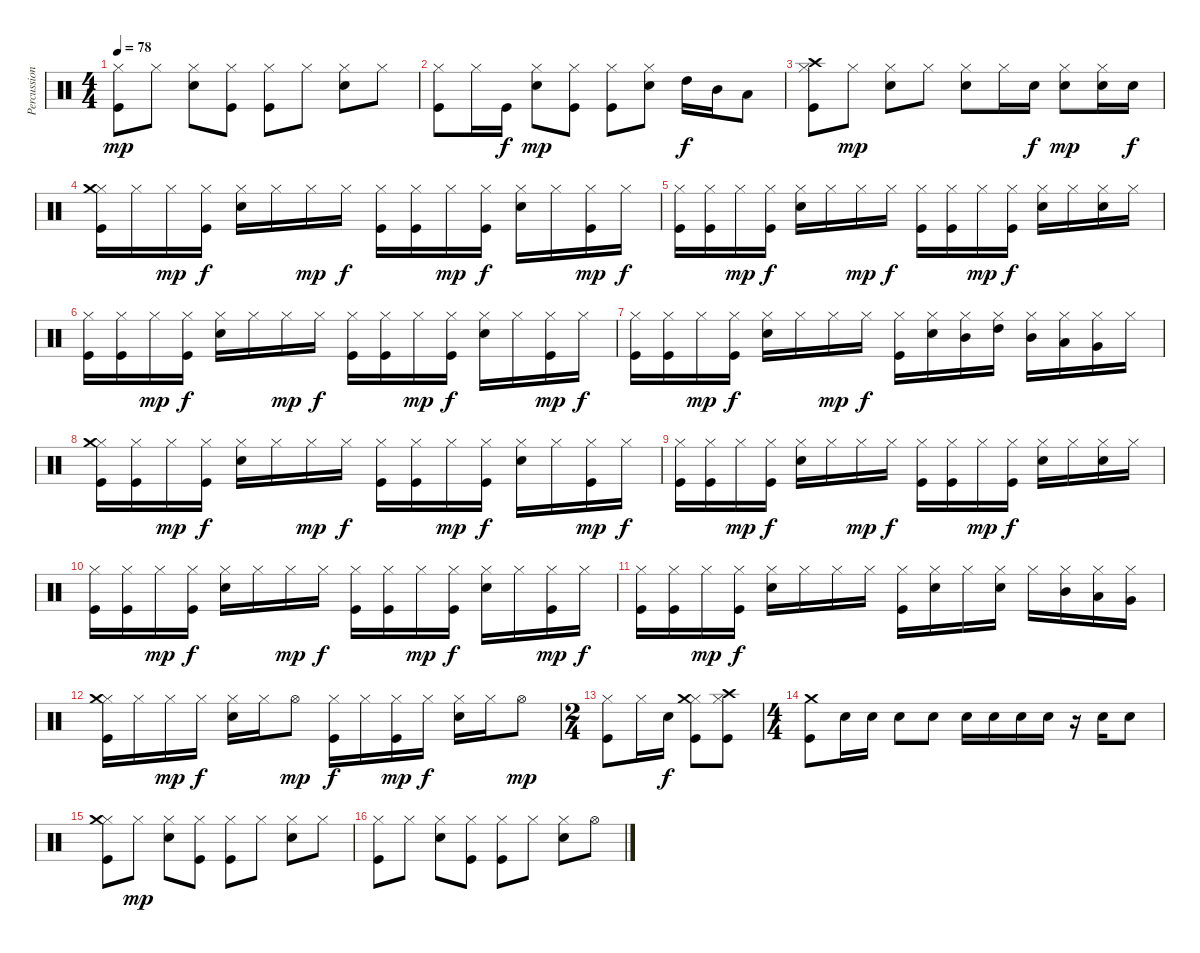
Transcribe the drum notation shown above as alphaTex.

\track ("Percussion" "Percussion") {instrument percussion}
\staff {score}
\articulation defaults
\ts (4 4)
\tempo 78
\clef neutral
\ks c
("Kick (hit)" "Hi-Hat (closed)").8{dy mp} "Hi-Hat (closed)".8 ("Electric Snare (hit)" "Hi-Hat (closed)").8 ("Kick (hit)" "Hi-Hat (closed)").8 ("Kick (hit)" "Hi-Hat (closed)").8 "Hi-Hat (closed)".8 ("Electric Snare (hit)" "Hi-Hat (closed)").8 "Hi-Hat (closed)".8 |
("Kick (hit)" "Hi-Hat (closed)").8 "Hi-Hat (closed)".16 "Kick (hit)".16{dy f} ("Electric Snare (hit)" "Hi-Hat (closed)").8{dy mp} ("Kick (hit)" "Hi-Hat (closed)").8 ("Kick (hit)" "Hi-Hat (closed)").8 ("Electric Snare (hit)" "Hi-Hat (closed)").8 "High Tom (hit)".16{dy f} "Mid Tom (hit)".16 "Low Tom (hit)".8 |
("Kick (hit)" "Hi-Hat (closed)" "Crash high (hit)").8 "Hi-Hat (closed)".8{dy mp} ("Electric Snare (hit)" "Hi-Hat (closed)").8 "Hi-Hat (closed)".8 ("Electric Snare (hit)" "Hi-Hat (closed)").8 "Hi-Hat (closed)".16 "Electric Snare (hit)".16{dy f} ("Electric Snare (hit)" "Hi-Hat (closed)").8{dy mp} ("Electric Snare (hit)" "Hi-Hat (closed)").16 "Electric Snare (hit)".16{dy f} |
("Kick (hit)" "Hi-Hat (closed)" "Crash medium (hit)").16 "Hi-Hat (closed)".16 "Hi-Hat (closed)".16{dy mp} ("Kick (hit)" "Hi-Hat (closed)").16{dy f} ("Electric Snare (hit)" "Hi-Hat (closed)").16 "Hi-Hat (closed)".16 "Hi-Hat (closed)".16{dy mp} "Hi-Hat (closed)".16{dy f} ("Kick (hit)" "Hi-Hat (closed)").16 ("Kick (hit)" "Hi-Hat (closed)").16 "Hi-Hat (closed)".16{dy mp} ("Kick (hit)" "Hi-Hat (closed)").16{dy f} ("Electric Snare (hit)" "Hi-Hat (closed)").16 "Hi-Hat (closed)".16 ("Kick (hit)" "Hi-Hat (closed)").16{dy mp} "Hi-Hat (closed)".16{dy f} |
("Kick (hit)" "Hi-Hat (closed)").16 ("Kick (hit)" "Hi-Hat (closed)").16 "Hi-Hat (closed)".16{dy mp} ("Kick (hit)" "Hi-Hat (closed)").16{dy f} ("Electric Snare (hit)" "Hi-Hat (closed)").16 "Hi-Hat (closed)".16 "Hi-Hat (closed)".16{dy mp} "Hi-Hat (closed)".16{dy f} ("Kick (hit)" "Hi-Hat (closed)").16 ("Kick (hit)" "Hi-Hat (closed)").16 "Hi-Hat (closed)".16{dy mp} ("Kick (hit)" "Hi-Hat (closed)").16{dy f} ("Electric Snare (hit)" "Hi-Hat (closed)").16 "Hi-Hat (closed)".16 ("Electric Snare (hit)" "Hi-Hat (closed)").16 "Hi-Hat (closed)".16 |
("Kick (hit)" "Hi-Hat (closed)").16 ("Kick (hit)" "Hi-Hat (closed)").16 "Hi-Hat (closed)".16{dy mp} ("Kick (hit)" "Hi-Hat (closed)").16{dy f} ("Electric Snare (hit)" "Hi-Hat (closed)").16 "Hi-Hat (closed)".16 "Hi-Hat (closed)".16{dy mp} "Hi-Hat (closed)".16{dy f} ("Kick (hit)" "Hi-Hat (closed)").16 ("Kick (hit)" "Hi-Hat (closed)").16 "Hi-Hat (closed)".16{dy mp} ("Kick (hit)" "Hi-Hat (closed)").16{dy f} ("Electric Snare (hit)" "Hi-Hat (closed)").16 "Hi-Hat (closed)".16 ("Kick (hit)" "Hi-Hat (closed)").16{dy mp} "Hi-Hat (closed)".16{dy f} |
("Kick (hit)" "Hi-Hat (closed)").16 ("Kick (hit)" "Hi-Hat (closed)").16 "Hi-Hat (closed)".16{dy mp} ("Kick (hit)" "Hi-Hat (closed)").16{dy f} ("Electric Snare (hit)" "Hi-Hat (closed)").16 "Hi-Hat (closed)".16 "Hi-Hat (closed)".16{dy mp} "Hi-Hat (closed)".16{dy f} ("Kick (hit)" "Hi-Hat (closed)").16 ("Electric Snare (hit)" "Hi-Hat (closed)").16 ("Mid Tom (hit)" "Hi-Hat (closed)").16 ("High Tom (hit)" "Hi-Hat (closed)").16 ("Mid Tom (hit)" "Hi-Hat (closed)").16 ("Low Tom (hit)" "Hi-Hat (closed)").16 ("Very Low Tom (hit)" "Hi-Hat (closed)").16 "Hi-Hat (closed)".16 |
("Kick (hit)" "Hi-Hat (closed)" "Crash medium (hit)").16 ("Kick (hit)" "Hi-Hat (closed)").16 "Hi-Hat (closed)".16{dy mp} ("Kick (hit)" "Hi-Hat (closed)").16{dy f} ("Electric Snare (hit)" "Hi-Hat (closed)").16 "Hi-Hat (closed)".16 "Hi-Hat (closed)".16{dy mp} "Hi-Hat (closed)".16{dy f} ("Kick (hit)" "Hi-Hat (closed)").16 ("Kick (hit)" "Hi-Hat (closed)").16 "Hi-Hat (closed)".16{dy mp} ("Kick (hit)" "Hi-Hat (closed)").16{dy f} ("Electric Snare (hit)" "Hi-Hat (closed)").16 "Hi-Hat (closed)".16 ("Kick (hit)" "Hi-Hat (closed)").16{dy mp} "Hi-Hat (closed)".16{dy f} |
("Kick (hit)" "Hi-Hat (closed)").16 ("Kick (hit)" "Hi-Hat (closed)").16 "Hi-Hat (closed)".16{dy mp} ("Kick (hit)" "Hi-Hat (closed)").16{dy f} ("Electric Snare (hit)" "Hi-Hat (closed)").16 "Hi-Hat (closed)".16 "Hi-Hat (closed)".16{dy mp} "Hi-Hat (closed)".16{dy f} ("Kick (hit)" "Hi-Hat (closed)").16 ("Kick (hit)" "Hi-Hat (closed)").16 "Hi-Hat (closed)".16{dy mp} ("Kick (hit)" "Hi-Hat (closed)").16{dy f} ("Electric Snare (hit)" "Hi-Hat (closed)").16 "Hi-Hat (closed)".16 ("Electric Snare (hit)" "Hi-Hat (closed)").16 "Hi-Hat (closed)".16 |
("Kick (hit)" "Hi-Hat (closed)").16 ("Kick (hit)" "Hi-Hat (closed)").16 "Hi-Hat (closed)".16{dy mp} ("Kick (hit)" "Hi-Hat (closed)").16{dy f} ("Electric Snare (hit)" "Hi-Hat (closed)").16 "Hi-Hat (closed)".16 "Hi-Hat (closed)".16{dy mp} "Hi-Hat (closed)".16{dy f} ("Kick (hit)" "Hi-Hat (closed)").16 ("Kick (hit)" "Hi-Hat (closed)").16 "Hi-Hat (closed)".16{dy mp} ("Kick (hit)" "Hi-Hat (closed)").16{dy f} ("Electric Snare (hit)" "Hi-Hat (closed)").16 "Hi-Hat (closed)".16 ("Kick (hit)" "Hi-Hat (closed)").16{dy mp} "Hi-Hat (closed)".16{dy f} |
("Kick (hit)" "Hi-Hat (closed)").16 ("Kick (hit)" "Hi-Hat (closed)").16 "Hi-Hat (closed)".16{dy mp} ("Kick (hit)" "Hi-Hat (closed)").16{dy f} ("Electric Snare (hit)" "Hi-Hat (closed)").16 "Hi-Hat (closed)".16 "Hi-Hat (closed)".16 "Hi-Hat (closed)".16 ("Kick (hit)" "Hi-Hat (closed)").16 ("Electric Snare (hit)" "Hi-Hat (closed)").16 "Hi-Hat (closed)".16 ("Electric Snare (hit)" "Hi-Hat (closed)").16 "Hi-Hat (closed)".16 ("Mid Tom (hit)" "Hi-Hat (closed)").16 ("Low Tom (hit)" "Hi-Hat (closed)").16 ("Very Low Tom (hit)" "Hi-Hat (closed)").16 |
("Kick (hit)" "Hi-Hat (closed)" "Crash medium (hit)").16 "Hi-Hat (closed)".16 "Hi-Hat (closed)".16{dy mp} "Hi-Hat (closed)".16{dy f} ("Electric Snare (hit)" "Hi-Hat (closed)").16 "Hi-Hat (closed)".16 "Hi-Hat (open)".8{dy mp} ("Kick (hit)" "Hi-Hat (closed)").16{dy f} "Hi-Hat (closed)".16 ("Kick (hit)" "Hi-Hat (closed)").16{dy mp} "Hi-Hat (closed)".16{dy f} ("Electric Snare (hit)" "Hi-Hat (closed)").16 "Hi-Hat (closed)".16 "Hi-Hat (open)".8{dy mp} |
\ts (2 4)
("Kick (hit)" "Hi-Hat (closed)").8 "Hi-Hat (closed)".16 "Electric Snare (hit)".16{dy f} ("Kick (hit)" "Hi-Hat (closed)" "Crash medium (hit)").8 ("Kick (hit)" "Hi-Hat (closed)" "Crash high (hit)").8 |
\ts (4 4)
("Kick (hit)" "Crash medium (hit)").8 "Electric Snare (hit)".16 "Electric Snare (hit)".16 "Electric Snare (hit)".8 "Electric Snare (hit)".8 "Electric Snare (hit)".16 "Electric Snare (hit)".16 "Electric Snare (hit)".16 "Electric Snare (hit)".16 r.16 "Electric Snare (hit)".16 "Electric Snare (hit)".8 |
("Kick (hit)" "Hi-Hat (closed)" "Crash medium (hit)").8 "Hi-Hat (closed)".8{dy mp} ("Electric Snare (hit)" "Hi-Hat (closed)").8 ("Kick (hit)" "Hi-Hat (closed)").8 ("Kick (hit)" "Hi-Hat (closed)").8 "Hi-Hat (closed)".8 ("Electric Snare (hit)" "Hi-Hat (closed)").8 "Hi-Hat (closed)".8 |
("Kick (hit)" "Hi-Hat (closed)").8 "Hi-Hat (closed)".8 ("Electric Snare (hit)" "Hi-Hat (closed)").8 ("Kick (hit)" "Hi-Hat (closed)").8 ("Kick (hit)" "Hi-Hat (closed)").8 "Hi-Hat (closed)".8 ("Electric Snare (hit)" "Hi-Hat (closed)").8 "Hi-Hat (open)".8
